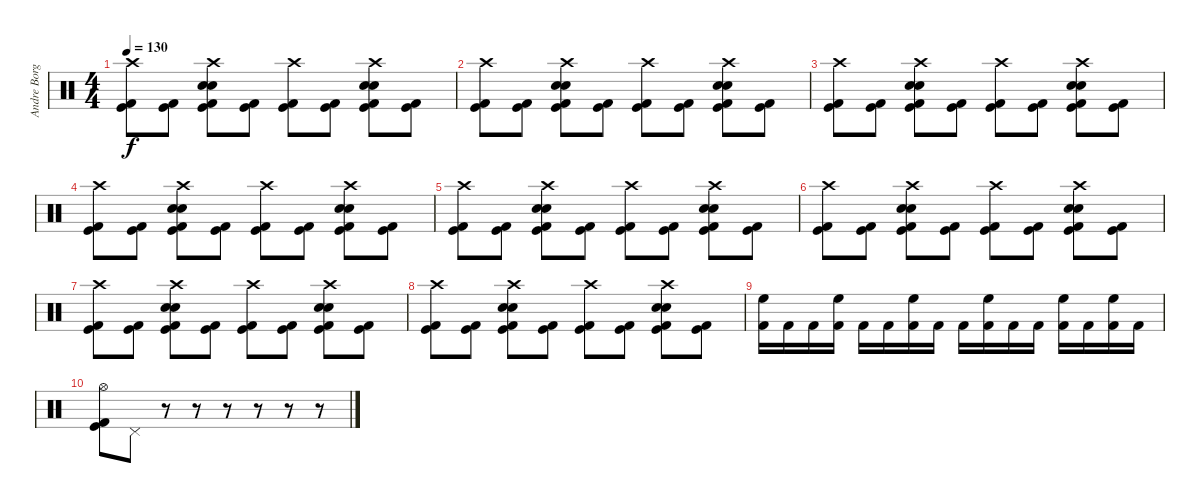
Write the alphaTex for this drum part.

\track ("Andre Borgman" "Andre Borg") {instrument percussion}
\staff {score}
\articulation defaults
\ts (4 4)
\tempo 130
\clef neutral
\ks c
("Crash high (hit)" "Kick (hit)" "Kick (hit) 2").8{dy f} ("Kick (hit)" "Kick (hit) 2").8 ("Crash high (hit)" "Kick (hit)" "Kick (hit) 2" "Electric Snare (hit)" "Snare (hit) 2").8 ("Kick (hit)" "Kick (hit) 2").8 ("Crash high (hit)" "Kick (hit)" "Kick (hit) 2").8 ("Kick (hit)" "Kick (hit) 2").8 ("Crash high (hit)" "Kick (hit)" "Kick (hit) 2" "Electric Snare (hit)" "Snare (hit) 2").8 ("Kick (hit)" "Kick (hit) 2").8 |
("Crash high (hit)" "Kick (hit)" "Kick (hit) 2").8 ("Kick (hit)" "Kick (hit) 2").8 ("Crash high (hit)" "Kick (hit)" "Kick (hit) 2" "Electric Snare (hit)" "Snare (hit) 2").8 ("Kick (hit)" "Kick (hit) 2").8 ("Crash high (hit)" "Kick (hit)" "Kick (hit) 2").8 ("Kick (hit)" "Kick (hit) 2").8 ("Crash high (hit)" "Kick (hit)" "Kick (hit) 2" "Electric Snare (hit)" "Snare (hit) 2").8 ("Kick (hit)" "Kick (hit) 2").8 |
("Crash high (hit)" "Kick (hit)" "Kick (hit) 2").8 ("Kick (hit)" "Kick (hit) 2").8 ("Crash high (hit)" "Kick (hit)" "Kick (hit) 2" "Electric Snare (hit)" "Snare (hit) 2").8 ("Kick (hit)" "Kick (hit) 2").8 ("Crash high (hit)" "Kick (hit)" "Kick (hit) 2").8 ("Kick (hit)" "Kick (hit) 2").8 ("Crash high (hit)" "Kick (hit)" "Kick (hit) 2" "Electric Snare (hit)" "Snare (hit) 2").8 ("Kick (hit)" "Kick (hit) 2").8 |
("Crash high (hit)" "Kick (hit)" "Kick (hit) 2").8 ("Kick (hit)" "Kick (hit) 2").8 ("Crash high (hit)" "Kick (hit)" "Kick (hit) 2" "Electric Snare (hit)" "Snare (hit) 2").8 ("Kick (hit)" "Kick (hit) 2").8 ("Crash high (hit)" "Kick (hit)" "Kick (hit) 2").8 ("Kick (hit)" "Kick (hit) 2").8 ("Crash high (hit)" "Kick (hit)" "Kick (hit) 2" "Electric Snare (hit)" "Snare (hit) 2").8 ("Kick (hit)" "Kick (hit) 2").8 |
("Crash high (hit)" "Kick (hit)" "Kick (hit) 2").8 ("Kick (hit)" "Kick (hit) 2").8 ("Crash high (hit)" "Kick (hit)" "Kick (hit) 2" "Electric Snare (hit)" "Snare (hit) 2").8 ("Kick (hit)" "Kick (hit) 2").8 ("Crash high (hit)" "Kick (hit)" "Kick (hit) 2").8 ("Kick (hit)" "Kick (hit) 2").8 ("Crash high (hit)" "Kick (hit)" "Kick (hit) 2" "Electric Snare (hit)" "Snare (hit) 2").8 ("Kick (hit)" "Kick (hit) 2").8 |
("Crash high (hit)" "Kick (hit)" "Kick (hit) 2").8 ("Kick (hit)" "Kick (hit) 2").8 ("Crash high (hit)" "Kick (hit)" "Kick (hit) 2" "Electric Snare (hit)" "Snare (hit) 2").8 ("Kick (hit)" "Kick (hit) 2").8 ("Crash high (hit)" "Kick (hit)" "Kick (hit) 2").8 ("Kick (hit)" "Kick (hit) 2").8 ("Crash high (hit)" "Kick (hit)" "Kick (hit) 2" "Electric Snare (hit)" "Snare (hit) 2").8 ("Kick (hit)" "Kick (hit) 2").8 |
("Crash high (hit)" "Kick (hit)" "Kick (hit) 2").8 ("Kick (hit)" "Kick (hit) 2").8 ("Crash high (hit)" "Kick (hit)" "Kick (hit) 2" "Electric Snare (hit)" "Snare (hit) 2").8 ("Kick (hit)" "Kick (hit) 2").8 ("Crash high (hit)" "Kick (hit)" "Kick (hit) 2").8 ("Kick (hit)" "Kick (hit) 2").8 ("Crash high (hit)" "Kick (hit)" "Kick (hit) 2" "Electric Snare (hit)" "Snare (hit) 2").8 ("Kick (hit)" "Kick (hit) 2").8 |
("Crash high (hit)" "Kick (hit)" "Kick (hit) 2").8 ("Kick (hit)" "Kick (hit) 2").8 ("Crash high (hit)" "Kick (hit)" "Kick (hit) 2" "Electric Snare (hit)" "Snare (hit) 2").8 ("Kick (hit)" "Kick (hit) 2").8 ("Crash high (hit)" "Kick (hit)" "Kick (hit) 2").8 ("Kick (hit)" "Kick (hit) 2").8 ("Crash high (hit)" "Kick (hit)" "Kick (hit) 2" "Electric Snare (hit)" "Snare (hit) 2").8 ("Kick (hit)" "Kick (hit) 2").8 |
("High Floor Tom (hit)" "Kick (hit) 2").16 "Kick (hit) 2".16 "Kick (hit) 2".16 ("High Floor Tom (hit)" "Kick (hit) 2").16 "Kick (hit) 2".16 "Kick (hit) 2".16 ("High Floor Tom (hit)" "Kick (hit) 2").16 "Kick (hit) 2".16 "Kick (hit) 2".16 ("High Floor Tom (hit)" "Kick (hit) 2").16 "Kick (hit) 2".16 "Kick (hit) 2".16 ("High Floor Tom (hit)" "Kick (hit) 2").16 "Kick (hit) 2".16 ("High Floor Tom (hit)" "Kick (hit) 2").16 "Kick (hit) 2".16 |
("Hi-Hat (open)" "Kick (hit)" "Kick (hit) 2").8 "Pedal Hi-Hat (hit)".8 r.8 r.8 r.8 r.8 r.8 r.8
